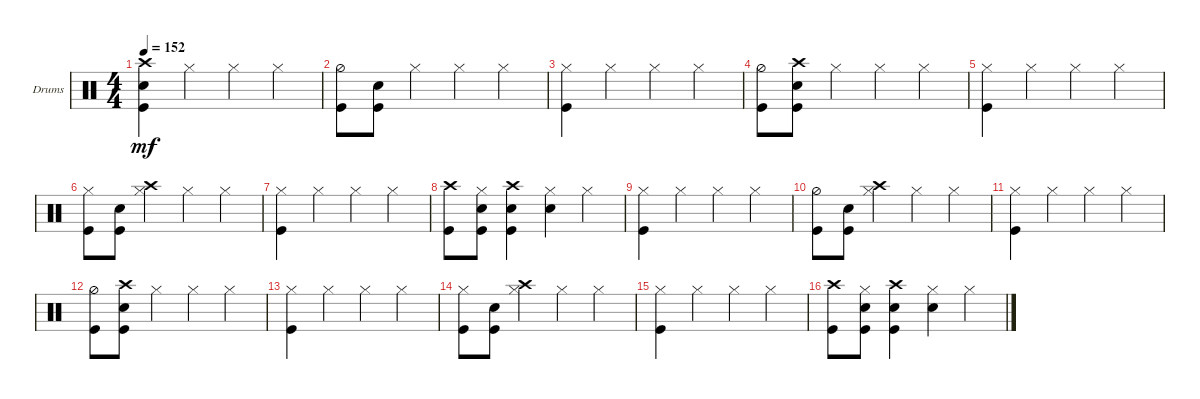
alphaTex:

\bracketExtendMode groupsimilarinstruments
\firstSystemTrackNameOrientation horizontal
\otherSystemsTrackNameOrientation horizontal
\track ("Drumkit" "Drums") {instrument percussion}
\staff {score}
\articulation defaults
\ts (4 4)
\tempo 152
\clef neutral
\scale
0.333333
\ks c
("Kick (hit)" "Snare (hit) 2" "Crash high (hit)").4{dy mf} "Hi-Hat (closed)".4 "Hi-Hat (closed)".4 "Hi-Hat (closed)".4 |
\scale
0.333333 ("Hi-Hat (half)" "Kick (hit)").8 ("Kick (hit)" "Snare (hit) 2").8 "Hi-Hat (closed)".4 "Hi-Hat (closed)".4 "Hi-Hat (closed)".4 |
\scale
0.333333 ("Hi-Hat (closed)" "Kick (hit)").4 "Hi-Hat (closed)".4 "Hi-Hat (closed)".4 "Hi-Hat (closed)".4 |
\scale
0.333333 ("Hi-Hat (half)" "Kick (hit)").8 ("Kick (hit)" "Snare (hit) 2" "Crash high (hit)").8 "Hi-Hat (closed)".4 "Hi-Hat (closed)".4 "Hi-Hat (closed)".4 |
\scale
0.333333 ("Hi-Hat (closed)" "Kick (hit)").4 "Hi-Hat (closed)".4 "Hi-Hat (closed)".4 "Hi-Hat (closed)".4 |
\scale
0.333333 ("Hi-Hat (closed)" "Kick (hit)").8 ("Kick (hit)" "Snare (hit) 2").8 ("Hi-Hat (closed)" "Crash high (hit)").4 "Hi-Hat (closed)".4 "Hi-Hat (closed)".4 |
\scale
0.333333 ("Hi-Hat (closed)" "Kick (hit)").4 "Hi-Hat (closed)".4 "Hi-Hat (closed)".4 "Hi-Hat (closed)".4 |
\scale
0.333333 ("Kick (hit)" "Crash high (hit)").8 ("Kick (hit)" "Snare (hit) 2" "Hi-Hat (closed)").8 ("Snare (hit) 2" "Kick (hit)" "Crash high (hit)").4 ("Snare (hit) 2" "Hi-Hat (closed)").4 "Hi-Hat (closed)".4 |
\scale
0.333333 ("Hi-Hat (closed)" "Kick (hit)").4 "Hi-Hat (closed)".4 "Hi-Hat (closed)".4 "Hi-Hat (closed)".4 |
\scale
0.333333 ("Hi-Hat (half)" "Kick (hit)").8 ("Kick (hit)" "Snare (hit) 2").8 ("Hi-Hat (closed)" "Crash high (hit)").4 "Hi-Hat (closed)".4 "Hi-Hat (closed)".4 |
\scale
0.333333 ("Hi-Hat (closed)" "Kick (hit)").4 "Hi-Hat (closed)".4 "Hi-Hat (closed)".4 "Hi-Hat (closed)".4 |
\scale
0.333333 ("Hi-Hat (half)" "Kick (hit)").8 ("Kick (hit)" "Snare (hit) 2" "Crash high (hit)").8 "Hi-Hat (closed)".4 "Hi-Hat (closed)".4 "Hi-Hat (closed)".4 |
\scale
0.333333 ("Hi-Hat (closed)" "Kick (hit)").4 "Hi-Hat (closed)".4 "Hi-Hat (closed)".4 "Hi-Hat (closed)".4 |
\scale
0.333333 ("Hi-Hat (closed)" "Kick (hit)").8 ("Kick (hit)" "Snare (hit) 2").8 ("Hi-Hat (closed)" "Crash high (hit)").4 "Hi-Hat (closed)".4 "Hi-Hat (closed)".4 |
\scale
0.333333 ("Hi-Hat (closed)" "Kick (hit)").4 "Hi-Hat (closed)".4 "Hi-Hat (closed)".4 "Hi-Hat (closed)".4 |
\scale
0.333333 ("Kick (hit)" "Crash high (hit)").8 ("Kick (hit)" "Snare (hit) 2" "Hi-Hat (closed)").8 ("Snare (hit) 2" "Kick (hit)" "Crash high (hit)").4 ("Snare (hit) 2" "Hi-Hat (closed)").4 "Hi-Hat (closed)".4
